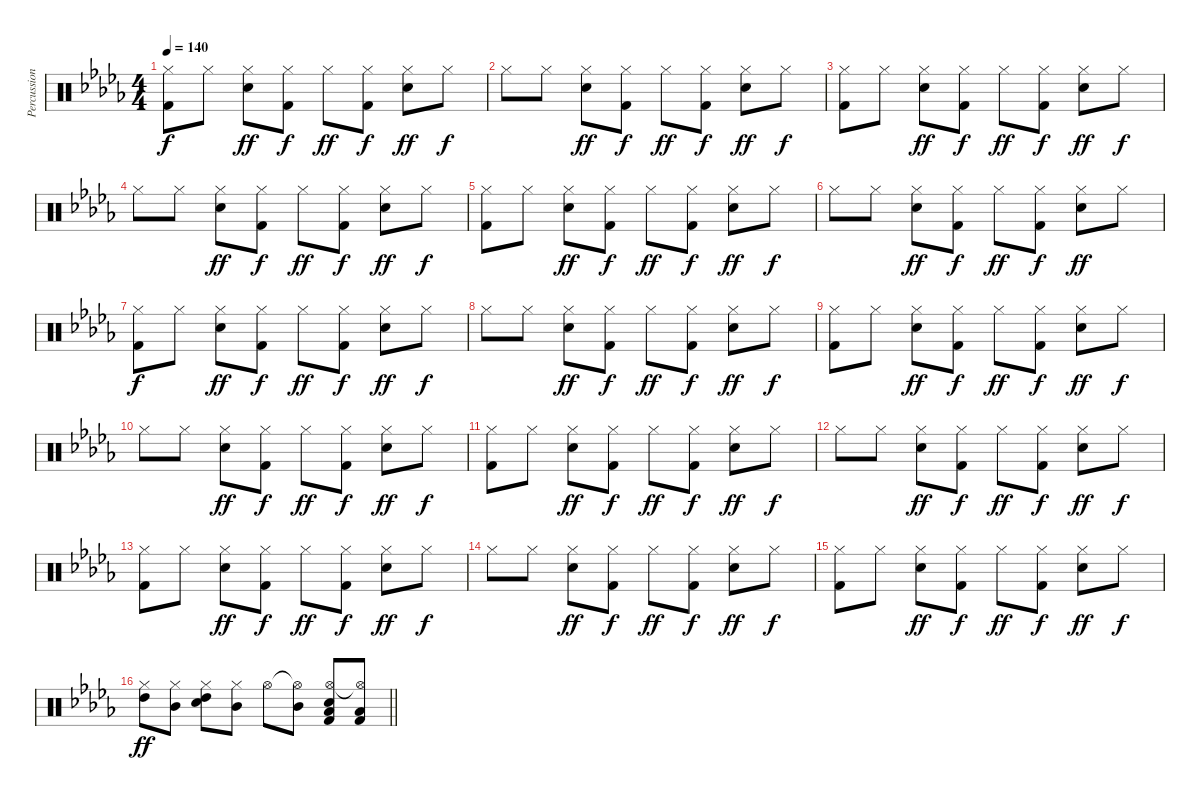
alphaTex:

\track ("Percussion" "Percussion") {instrument percussion}
\staff {score}
\articulation defaults
\ts (4 4)
\tempo 140
\clef neutral
\ks db
("Hi-Hat (closed)" "Kick (hit) 2").8{dy f} "Hi-Hat (closed)".8 ("Hi-Hat (closed)" "Snare (hit) 2").8{dy ff} ("Hi-Hat (closed)" "Kick (hit) 2").8{dy f} "Hi-Hat (closed)".8{dy ff} ("Hi-Hat (closed)" "Kick (hit) 2").8{dy f} ("Hi-Hat (closed)" "Snare (hit) 2").8{dy ff} "Hi-Hat (closed)".8{dy f} |
"Hi-Hat (closed)".8 "Hi-Hat (closed)".8 ("Hi-Hat (closed)" "Snare (hit) 2").8{dy ff} ("Hi-Hat (closed)" "Kick (hit) 2").8{dy f} "Hi-Hat (closed)".8{dy ff} ("Hi-Hat (closed)" "Kick (hit) 2").8{dy f} ("Hi-Hat (closed)" "Snare (hit) 2").8{dy ff} "Hi-Hat (closed)".8{dy f} |
("Hi-Hat (closed)" "Kick (hit) 2").8 "Hi-Hat (closed)".8 ("Hi-Hat (closed)" "Snare (hit) 2").8{dy ff} ("Hi-Hat (closed)" "Kick (hit) 2").8{dy f} "Hi-Hat (closed)".8{dy ff} ("Hi-Hat (closed)" "Kick (hit) 2").8{dy f} ("Hi-Hat (closed)" "Snare (hit) 2").8{dy ff} "Hi-Hat (closed)".8{dy f} |
"Hi-Hat (closed)".8 "Hi-Hat (closed)".8 ("Hi-Hat (closed)" "Snare (hit) 2").8{dy ff} ("Hi-Hat (closed)" "Kick (hit) 2").8{dy f} "Hi-Hat (closed)".8{dy ff} ("Hi-Hat (closed)" "Kick (hit) 2").8{dy f} ("Hi-Hat (closed)" "Snare (hit) 2").8{dy ff} "Hi-Hat (closed)".8{dy f} |
("Hi-Hat (closed)" "Kick (hit) 2").8 "Hi-Hat (closed)".8 ("Hi-Hat (closed)" "Snare (hit) 2").8{dy ff} ("Hi-Hat (closed)" "Kick (hit) 2").8{dy f} "Hi-Hat (closed)".8{dy ff} ("Hi-Hat (closed)" "Kick (hit) 2").8{dy f} ("Hi-Hat (closed)" "Snare (hit) 2").8{dy ff} "Hi-Hat (closed)".8{dy f} |
"Hi-Hat (closed)".8 "Hi-Hat (closed)".8 ("Hi-Hat (closed)" "Snare (hit) 2").8{dy ff} ("Hi-Hat (closed)" "Kick (hit) 2").8{dy f} "Hi-Hat (closed)".8{dy ff} ("Hi-Hat (closed)" "Kick (hit) 2").8{dy f} ("Hi-Hat (closed)" "Snare (hit) 2").8{dy ff} "Hi-Hat (closed)".8 |
("Hi-Hat (closed)" "Kick (hit) 2").8{dy f} "Hi-Hat (closed)".8 ("Hi-Hat (closed)" "Snare (hit) 2").8{dy ff} ("Hi-Hat (closed)" "Kick (hit) 2").8{dy f} "Hi-Hat (closed)".8{dy ff} ("Hi-Hat (closed)" "Kick (hit) 2").8{dy f} ("Hi-Hat (closed)" "Snare (hit) 2").8{dy ff} "Hi-Hat (closed)".8{dy f} |
"Hi-Hat (closed)".8 "Hi-Hat (closed)".8 ("Hi-Hat (closed)" "Snare (hit) 2").8{dy ff} ("Hi-Hat (closed)" "Kick (hit) 2").8{dy f} "Hi-Hat (closed)".8{dy ff} ("Hi-Hat (closed)" "Kick (hit) 2").8{dy f} ("Hi-Hat (closed)" "Snare (hit) 2").8{dy ff} "Hi-Hat (closed)".8{dy f} |
("Hi-Hat (closed)" "Kick (hit) 2").8 "Hi-Hat (closed)".8 ("Hi-Hat (closed)" "Snare (hit) 2").8{dy ff} ("Hi-Hat (closed)" "Kick (hit) 2").8{dy f} "Hi-Hat (closed)".8{dy ff} ("Hi-Hat (closed)" "Kick (hit) 2").8{dy f} ("Hi-Hat (closed)" "Snare (hit) 2").8{dy ff} "Hi-Hat (closed)".8{dy f} |
"Hi-Hat (closed)".8 "Hi-Hat (closed)".8 ("Hi-Hat (closed)" "Snare (hit) 2").8{dy ff} ("Hi-Hat (closed)" "Kick (hit) 2").8{dy f} "Hi-Hat (closed)".8{dy ff} ("Hi-Hat (closed)" "Kick (hit) 2").8{dy f} ("Hi-Hat (closed)" "Snare (hit) 2").8{dy ff} "Hi-Hat (closed)".8{dy f} |
("Hi-Hat (closed)" "Kick (hit) 2").8 "Hi-Hat (closed)".8 ("Hi-Hat (closed)" "Snare (hit) 2").8{dy ff} ("Hi-Hat (closed)" "Kick (hit) 2").8{dy f} "Hi-Hat (closed)".8{dy ff} ("Hi-Hat (closed)" "Kick (hit) 2").8{dy f} ("Hi-Hat (closed)" "Snare (hit) 2").8{dy ff} "Hi-Hat (closed)".8{dy f} |
"Hi-Hat (closed)".8 "Hi-Hat (closed)".8 ("Hi-Hat (closed)" "Snare (hit) 2").8{dy ff} ("Hi-Hat (closed)" "Kick (hit) 2").8{dy f} "Hi-Hat (closed)".8{dy ff} ("Hi-Hat (closed)" "Kick (hit) 2").8{dy f} ("Hi-Hat (closed)" "Snare (hit) 2").8{dy ff} "Hi-Hat (closed)".8{dy f} |
("Hi-Hat (closed)" "Kick (hit) 2").8 "Hi-Hat (closed)".8 ("Hi-Hat (closed)" "Snare (hit) 2").8{dy ff} ("Hi-Hat (closed)" "Kick (hit) 2").8{dy f} "Hi-Hat (closed)".8{dy ff} ("Hi-Hat (closed)" "Kick (hit) 2").8{dy f} ("Hi-Hat (closed)" "Snare (hit) 2").8{dy ff} "Hi-Hat (closed)".8{dy f} |
"Hi-Hat (closed)".8 "Hi-Hat (closed)".8 ("Hi-Hat (closed)" "Snare (hit) 2").8{dy ff} ("Hi-Hat (closed)" "Kick (hit) 2").8{dy f} "Hi-Hat (closed)".8{dy ff} ("Hi-Hat (closed)" "Kick (hit) 2").8{dy f} ("Hi-Hat (closed)" "Snare (hit) 2").8{dy ff} "Hi-Hat (closed)".8{dy f} |
("Hi-Hat (closed)" "Kick (hit) 2").8 "Hi-Hat (closed)".8 ("Hi-Hat (closed)" "Snare (hit) 2").8{dy ff} ("Hi-Hat (closed)" "Kick (hit) 2").8{dy f} "Hi-Hat (closed)".8{dy ff} ("Hi-Hat (closed)" "Kick (hit) 2").8{dy f} ("Hi-Hat (closed)" "Snare (hit) 2").8{dy ff} "Hi-Hat (closed)".8{dy f} |
\barLineRight lightlight
("Hi-Hat (closed)" "High Tom (hit)").8{dy ff} ("Hi-Hat (closed)" "Mid Tom (hit)").8 ("Hi-Hat (closed)" "Snare (hit) 2" "High Tom (hit)").8 ("Hi-Hat (closed)" "Mid Tom (hit)").8 "Hi-Hat (open)".8 ("Hi-Hat (open)"{t} "Mid Tom (hit)").8 ("Hi-Hat (open)" "Snare (hit) 2" "Low Floor Tom (hit)" "Kick (hit) 2").8 ("Hi-Hat (open)"{t} "Low Floor Tom (hit)" "Kick (hit) 2").8
